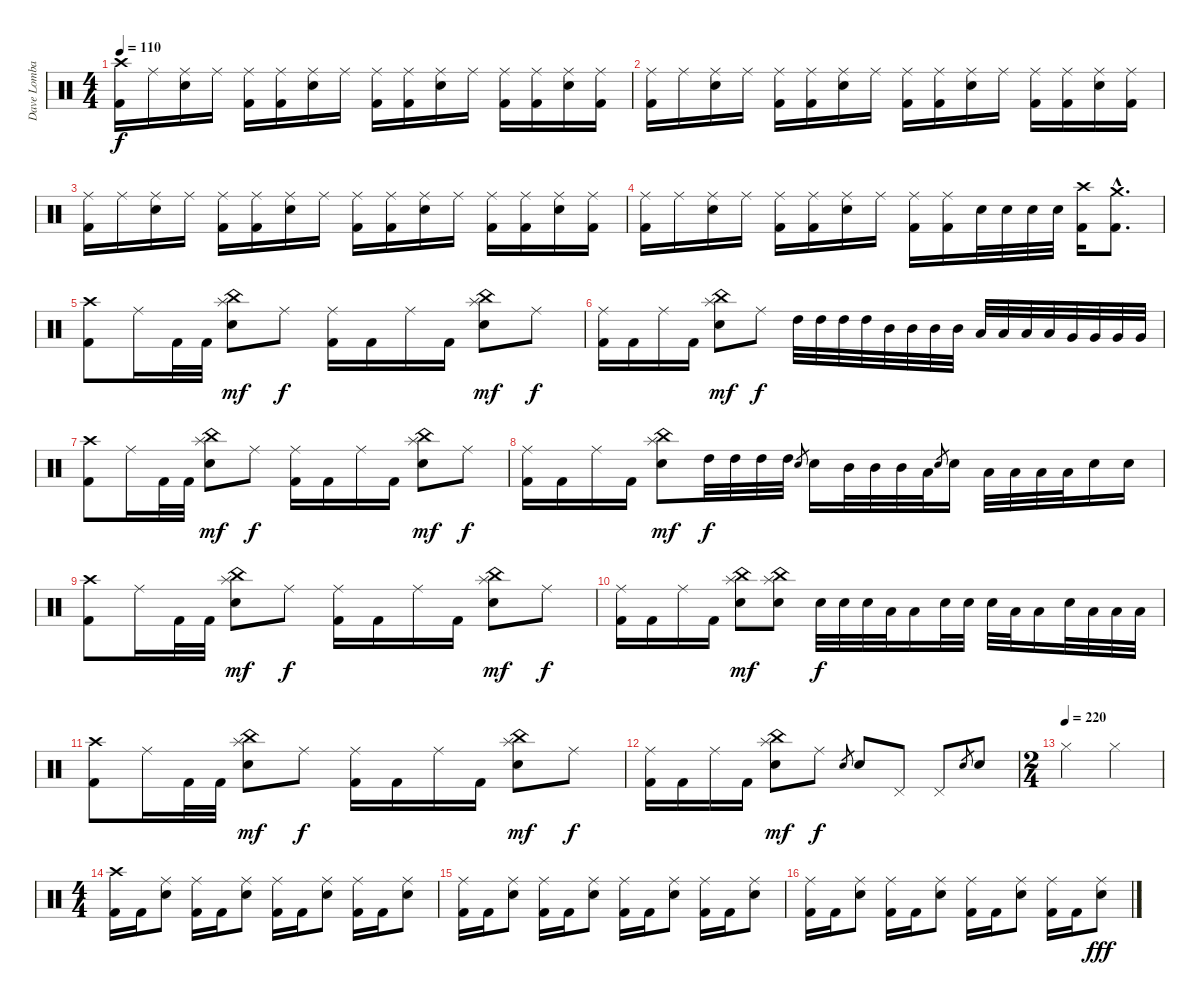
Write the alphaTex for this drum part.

\track ("Dave Lombardo" "Dave Lomba") {instrument percussion}
\staff {score}
\articulation defaults
\ts (4 4)
\tempo 110
\clef neutral
\ks c
("Crash high (hit)" "Kick (hit) 2").16{dy f} "Ride (middle)".16 ("Electric Snare (hit)" "Ride (middle)").16 "Ride (middle)".16 ("Kick (hit) 2" "Ride (middle)").16 ("Kick (hit) 2" "Ride (middle)").16 ("Electric Snare (hit)" "Ride (middle)").16 "Ride (middle)".16 ("Kick (hit) 2" "Ride (middle)").16 ("Kick (hit) 2" "Ride (middle)").16 ("Electric Snare (hit)" "Ride (middle)").16 "Ride (middle)".16 ("Kick (hit) 2" "Ride (middle)").16 ("Kick (hit) 2" "Ride (middle)").16 ("Electric Snare (hit)" "Ride (middle)").16 ("Kick (hit) 2" "Ride (middle)").16 |
("Kick (hit) 2" "Ride (middle)").16 "Ride (middle)".16 ("Electric Snare (hit)" "Ride (middle)").16 "Ride (middle)".16 ("Kick (hit) 2" "Ride (middle)").16 ("Kick (hit) 2" "Ride (middle)").16 ("Electric Snare (hit)" "Ride (middle)").16 "Ride (middle)".16 ("Kick (hit) 2" "Ride (middle)").16 ("Kick (hit) 2" "Ride (middle)").16 ("Electric Snare (hit)" "Ride (middle)").16 "Ride (middle)".16 ("Kick (hit) 2" "Ride (middle)").16 ("Kick (hit) 2" "Ride (middle)").16 ("Electric Snare (hit)" "Ride (middle)").16 ("Kick (hit) 2" "Ride (middle)").16 |
("Kick (hit) 2" "Ride (middle)").16 "Ride (middle)".16 ("Electric Snare (hit)" "Ride (middle)").16 "Ride (middle)".16 ("Kick (hit) 2" "Ride (middle)").16 ("Kick (hit) 2" "Ride (middle)").16 ("Electric Snare (hit)" "Ride (middle)").16 "Ride (middle)".16 ("Kick (hit) 2" "Ride (middle)").16 ("Kick (hit) 2" "Ride (middle)").16 ("Electric Snare (hit)" "Ride (middle)").16 "Ride (middle)".16 ("Kick (hit) 2" "Ride (middle)").16 ("Kick (hit) 2" "Ride (middle)").16 ("Electric Snare (hit)" "Ride (middle)").16 ("Kick (hit) 2" "Ride (middle)").16 |
("Kick (hit) 2" "Ride (middle)").16 "Ride (middle)".16 ("Electric Snare (hit)" "Ride (middle)").16 "Ride (middle)".16 ("Kick (hit) 2" "Ride (middle)").16 ("Kick (hit) 2" "Ride (middle)").16 ("Electric Snare (hit)" "Ride (middle)").16 "Ride (middle)".16 ("Kick (hit) 2" "Ride (middle)").16 ("Kick (hit) 2" "Ride (middle)").16 "Electric Snare (hit)".32 "Electric Snare (hit)".32 "Electric Snare (hit)".32 "Electric Snare (hit)".32 ("Kick (hit) 2" "Crash high (hit)").16 ("Kick (hit) 2"{hac} "Crash medium (hit)"{hac}).8{d} |
("Crash high (hit)" "Kick (hit) 2").8 "Ride (middle)".16 "Kick (hit) 2".32 "Kick (hit) 2".32 ("China (hit)" "Splash (hit)" "Electric Snare (hit)").8{dy mf} "Ride (middle)".8{dy f} ("Kick (hit) 2" "Ride (middle)").16 "Kick (hit) 2".16 "Ride (middle)".16 "Kick (hit) 2".16 ("China (hit)" "Splash (hit)" "Electric Snare (hit)").8{dy mf} "Ride (middle)".8{dy f} |
("Kick (hit) 2" "Ride (middle)").16 "Kick (hit) 2".16 "Ride (middle)".16 "Kick (hit) 2".16 ("China (hit)" "Splash (hit)" "Electric Snare (hit)").8{dy mf} "Ride (middle)".8{dy f} "High Tom (hit)".32 "High Tom (hit)".32 "High Tom (hit)".32 "High Tom (hit)".32 "Mid Tom (hit)".32 "Mid Tom (hit)".32 "Mid Tom (hit)".32 "Mid Tom (hit)".32 "Low Tom (hit)".32 "Low Tom (hit)".32 "Low Tom (hit)".32 "Low Tom (hit)".32 "Very Low Tom (hit)".32 "Very Low Tom (hit)".32 "Very Low Tom (hit)".32 "Very Low Tom (hit)".32 |
("Crash high (hit)" "Kick (hit) 2").8 "Ride (middle)".16 "Kick (hit) 2".32 "Kick (hit) 2".32 ("China (hit)" "Splash (hit)" "Electric Snare (hit)").8{dy mf} "Ride (middle)".8{dy f} ("Kick (hit) 2" "Ride (middle)").16 "Kick (hit) 2".16 "Ride (middle)".16 "Kick (hit) 2".16 ("China (hit)" "Splash (hit)" "Electric Snare (hit)").8{dy mf} "Ride (middle)".8{dy f} |
("Kick (hit) 2" "Ride (middle)").16 "Kick (hit) 2".16 "Ride (middle)".16 "Kick (hit) 2".16 ("China (hit)" "Splash (hit)" "Electric Snare (hit)").8{dy mf} "High Tom (hit)".32{dy f} "High Tom (hit)".32 "High Tom (hit)".32 "High Tom (hit)".32 "Electric Snare (hit)".8{gr} "Electric Snare (hit)".16 "Mid Tom (hit)".32 "Mid Tom (hit)".32 "Mid Tom (hit)".32 "Low Tom (hit)".32 "Electric Snare (hit)".8{gr} "Electric Snare (hit)".16 "Low Tom (hit)".32 "Low Tom (hit)".32 "Low Tom (hit)".32 "Low Tom (hit)".32 "Electric Snare (hit)".16 "Electric Snare (hit)".16 |
("Crash high (hit)" "Kick (hit) 2").8 "Ride (middle)".16 "Kick (hit) 2".32 "Kick (hit) 2".32 ("China (hit)" "Splash (hit)" "Electric Snare (hit)").8{dy mf} "Ride (middle)".8{dy f} ("Kick (hit) 2" "Ride (middle)").16 "Kick (hit) 2".16 "Ride (middle)".16 "Kick (hit) 2".16 ("China (hit)" "Splash (hit)" "Electric Snare (hit)").8{dy mf} "Ride (middle)".8{dy f} |
("Kick (hit) 2" "Ride (middle)").16 "Kick (hit) 2".16 "Ride (middle)".16 "Kick (hit) 2".16 ("China (hit)" "Splash (hit)" "Electric Snare (hit)").8{dy mf} ("China (hit)" "Splash (hit)" "Electric Snare (hit)").8 "Electric Snare (hit)".32{dy f} "Electric Snare (hit)".32 "Electric Snare (hit)".32 "Low Tom (hit)".32 "Low Tom (hit)".16 "Electric Snare (hit)".32 "Electric Snare (hit)".32 "Electric Snare (hit)".32 "Low Tom (hit)".32 "Low Tom (hit)".16 "Electric Snare (hit)".32 "Low Tom (hit)".32 "Low Tom (hit)".32 "Low Tom (hit)".32 |
("Crash high (hit)" "Kick (hit) 2").8 "Ride (middle)".16 "Kick (hit) 2".32 "Kick (hit) 2".32 ("China (hit)" "Splash (hit)" "Electric Snare (hit)").8{dy mf} "Ride (middle)".8{dy f} ("Kick (hit) 2" "Ride (middle)").16 "Kick (hit) 2".16 "Ride (middle)".16 "Kick (hit) 2".16 ("China (hit)" "Splash (hit)" "Electric Snare (hit)").8{dy mf} "Ride (middle)".8{dy f} |
("Kick (hit) 2" "Ride (middle)").16 "Kick (hit) 2".16 "Ride (middle)".16 "Kick (hit) 2".16 ("China (hit)" "Splash (hit)" "Electric Snare (hit)").8{dy mf} "Ride (middle)".8{dy f} "Electric Snare (hit)".8{gr} "Electric Snare (hit)".8 "Pedal Hi-Hat (hit)".8 "Pedal Hi-Hat (hit)".8 "Electric Snare (hit)".8{gr} "Electric Snare (hit)".8 |
\ts (2 4)
\tempo 215
\tempo (220)
"Hi-Hat (closed)".4 "Hi-Hat (closed)".4 |
\ts (4 4)
("Crash high (hit)" "Kick (hit) 2").16 "Kick (hit) 2".16 ("Ride (middle)" "Electric Snare (hit)").8 ("Ride (middle)" "Kick (hit) 2").16 "Kick (hit) 2".16 ("Ride (middle)" "Electric Snare (hit)").8 ("Ride (middle)" "Kick (hit) 2").16 "Kick (hit) 2".16 ("Ride (middle)" "Electric Snare (hit)").8 ("Ride (middle)" "Kick (hit) 2").16 "Kick (hit) 2".16 ("Ride (middle)" "Electric Snare (hit)").8 |
("Ride (middle)" "Kick (hit) 2").16 "Kick (hit) 2".16 ("Ride (middle)" "Electric Snare (hit)").8 ("Ride (middle)" "Kick (hit) 2").16 "Kick (hit) 2".16 ("Ride (middle)" "Electric Snare (hit)").8 ("Ride (middle)" "Kick (hit) 2").16 "Kick (hit) 2".16 ("Ride (middle)" "Electric Snare (hit)").8 ("Ride (middle)" "Kick (hit) 2").16 "Kick (hit) 2".16 ("Ride (middle)" "Electric Snare (hit)").8 |
("Ride (middle)" "Kick (hit) 2").16 "Kick (hit) 2".16 ("Ride (middle)" "Electric Snare (hit)").8 ("Ride (middle)" "Kick (hit) 2").16 "Kick (hit) 2".16 ("Ride (middle)" "Electric Snare (hit)").8 ("Ride (middle)" "Kick (hit) 2").16 "Kick (hit) 2".16 ("Ride (middle)" "Electric Snare (hit)").8 ("Ride (middle)" "Kick (hit) 2").16 "Kick (hit) 2".16 ("Ride (middle)" "Electric Snare (hit)").8{dy fff}
